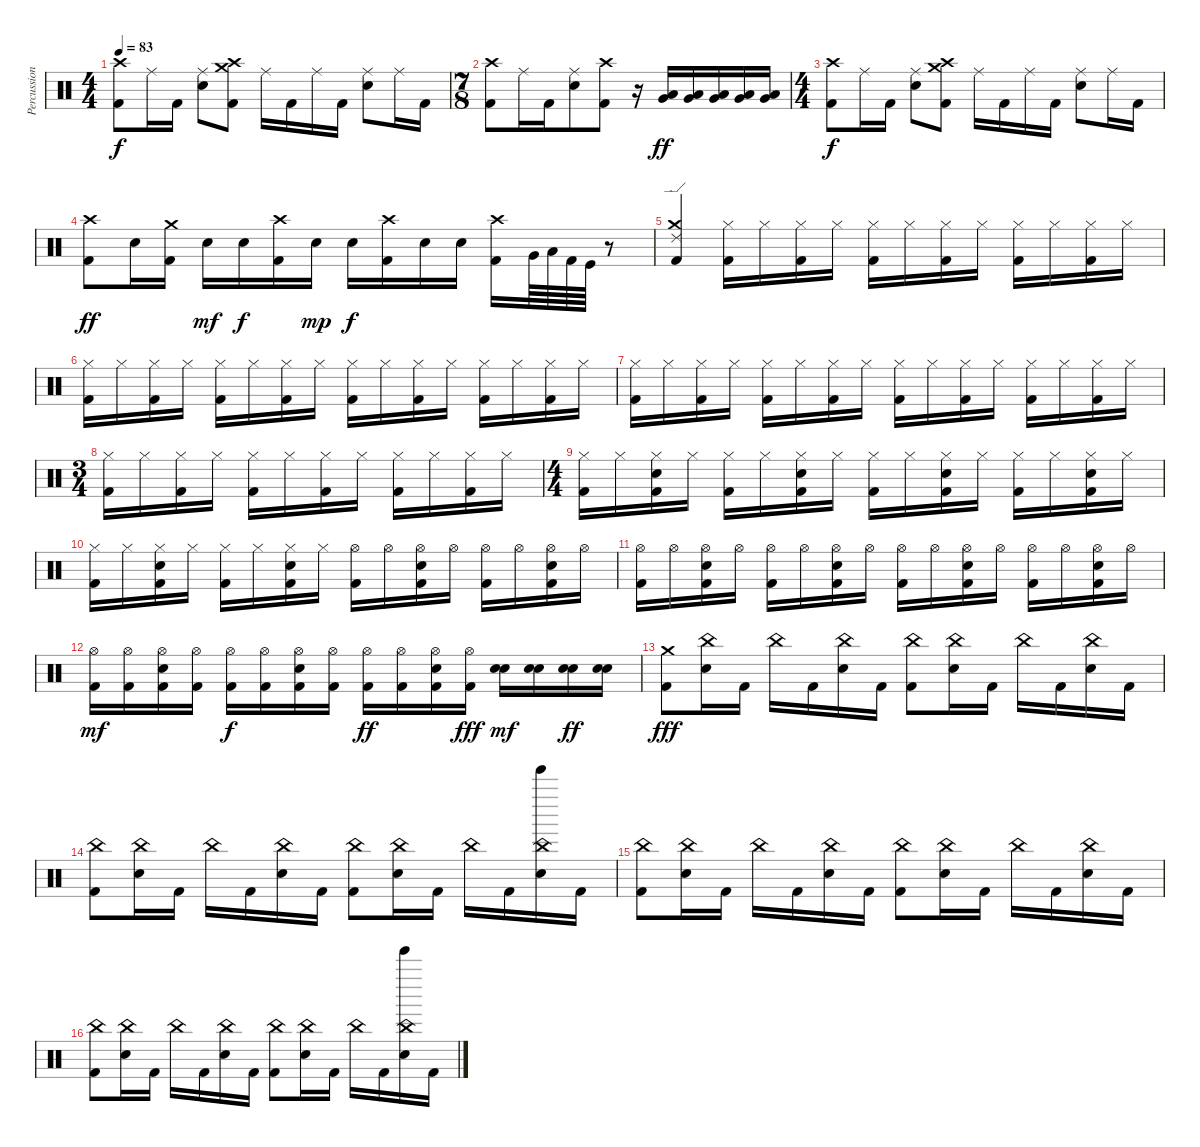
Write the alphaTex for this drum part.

\track ("Percussion" "Percussion") {instrument percussion}
\staff {score}
\articulation defaults
\ts (4 4)
\tempo 83
\clef neutral
\ks c
("Crash high (hit)" "Kick (hit) 2").8{dy f} "Ride (middle)".16 "Kick (hit) 2".16 ("Ride (middle)" "Electric Snare (hit)").8 ("Crash high (hit)" "Crash medium (hit)" "Kick (hit) 2").8 "Ride (middle)".16 "Kick (hit) 2".16 "Ride (middle)".16 "Kick (hit) 2".16 ("Ride (middle)" "Electric Snare (hit)").8 "Ride (middle)".16 "Kick (hit) 2".16 |
\ts (7 8)
("Crash high (hit)" "Kick (hit) 2").8 "Ride (middle)".16 "Kick (hit) 2".16 ("Ride (middle)" "Electric Snare (hit)").8 ("Crash high (hit)" "Kick (hit) 2").8 r.16 ("Very Low Tom (hit)" "Low Floor Tom (hit)").16{dy ff} ("Very Low Tom (hit)" "Low Floor Tom (hit)").16 ("Very Low Tom (hit)" "Low Floor Tom (hit)").16 ("Very Low Tom (hit)" "Low Floor Tom (hit)").16 ("Very Low Tom (hit)" "Low Floor Tom (hit)").16 |
\ts (4 4)
("Crash high (hit)" "Kick (hit) 2").8{dy f} "Ride (middle)".16 "Kick (hit) 2".16 ("Ride (middle)" "Electric Snare (hit)").8 ("Crash high (hit)" "Crash medium (hit)" "Kick (hit) 2").8 "Ride (middle)".16 "Kick (hit) 2".16 "Ride (middle)".16 "Kick (hit) 2".16 ("Ride (middle)" "Electric Snare (hit)").8 "Ride (middle)".16 "Kick (hit) 2".16 |
("Crash high (hit)" "Kick (hit) 2").8{dy ff} "Electric Snare (hit)".16 ("Crash medium (hit)" "Kick (hit) 2").16 "Electric Snare (hit)".16{dy mf} "Electric Snare (hit)".16{dy f} ("Crash high (hit)" "Kick (hit) 2").16 "Electric Snare (hit)".16{dy mp} "Electric Snare (hit)".16{dy f} ("Crash high (hit)" "Kick (hit) 2").16 "Electric Snare (hit)".16 "Electric Snare (hit)".16 ("Crash high (hit)" "Kick (hit) 2").16 "Very Low Tom (hit)".64 "Low Floor Tom (hit)".64 "Kick (hit) 2".64 "Kick (hit)".64 r.8 |
("Crash medium (hit)" "Ride (edge) 2" "Kick (hit) 2").4 ("Hi-Hat (closed)" "Kick (hit) 2").16{volume 7} "Hi-Hat (closed)".16{volume 11} ("Hi-Hat (closed)" "Kick (hit) 2").16 "Hi-Hat (closed)".16 ("Hi-Hat (closed)" "Kick (hit) 2").16 "Hi-Hat (closed)".16 ("Hi-Hat (closed)" "Kick (hit) 2").16 "Hi-Hat (closed)".16 ("Hi-Hat (closed)" "Kick (hit) 2").16 "Hi-Hat (closed)".16 ("Hi-Hat (closed)" "Kick (hit) 2").16 "Hi-Hat (closed)".16 |
("Hi-Hat (closed)" "Kick (hit) 2").16 "Hi-Hat (closed)".16 ("Hi-Hat (closed)" "Kick (hit) 2").16 "Hi-Hat (closed)".16 ("Hi-Hat (closed)" "Kick (hit) 2").16 "Hi-Hat (closed)".16 ("Hi-Hat (closed)" "Kick (hit) 2").16 "Hi-Hat (closed)".16 ("Hi-Hat (closed)" "Kick (hit) 2").16 "Hi-Hat (closed)".16 ("Hi-Hat (closed)" "Kick (hit) 2").16 "Hi-Hat (closed)".16 ("Hi-Hat (closed)" "Kick (hit) 2").16 "Hi-Hat (closed)".16 ("Hi-Hat (closed)" "Kick (hit) 2").16 "Hi-Hat (closed)".16 |
("Hi-Hat (closed)" "Kick (hit) 2").16 "Hi-Hat (closed)".16 ("Hi-Hat (closed)" "Kick (hit) 2").16 "Hi-Hat (closed)".16 ("Hi-Hat (closed)" "Kick (hit) 2").16 "Hi-Hat (closed)".16 ("Hi-Hat (closed)" "Kick (hit) 2").16 "Hi-Hat (closed)".16 ("Hi-Hat (closed)" "Kick (hit) 2").16 "Hi-Hat (closed)".16 ("Hi-Hat (closed)" "Kick (hit) 2").16 "Hi-Hat (closed)".16 ("Hi-Hat (closed)" "Kick (hit) 2").16 "Hi-Hat (closed)".16 ("Hi-Hat (closed)" "Kick (hit) 2").16 "Hi-Hat (closed)".16 |
\ts (3 4)
("Hi-Hat (closed)" "Kick (hit) 2").16{volume 14} "Hi-Hat (closed)".16 ("Hi-Hat (closed)" "Kick (hit) 2").16 "Hi-Hat (closed)".16 ("Hi-Hat (closed)" "Kick (hit) 2").16 "Hi-Hat (closed)".16 ("Hi-Hat (closed)" "Kick (hit) 2").16 "Hi-Hat (closed)".16 ("Hi-Hat (closed)" "Kick (hit) 2").16 "Hi-Hat (closed)".16 ("Hi-Hat (closed)" "Kick (hit) 2").16 "Hi-Hat (closed)".16 |
\ts (4 4)
("Hi-Hat (closed)" "Kick (hit) 2").16 "Hi-Hat (closed)".16 ("Hi-Hat (closed)" "Electric Snare (hit)" "Kick (hit) 2").16 "Hi-Hat (closed)".16 ("Hi-Hat (closed)" "Kick (hit) 2").16 "Hi-Hat (closed)".16 ("Hi-Hat (closed)" "Electric Snare (hit)" "Kick (hit) 2").16 "Hi-Hat (closed)".16 ("Hi-Hat (closed)" "Kick (hit) 2").16 "Hi-Hat (closed)".16 ("Hi-Hat (closed)" "Electric Snare (hit)" "Kick (hit) 2").16 "Hi-Hat (closed)".16 ("Hi-Hat (closed)" "Kick (hit) 2").16 "Hi-Hat (closed)".16 ("Hi-Hat (closed)" "Electric Snare (hit)" "Kick (hit) 2").16 "Hi-Hat (closed)".16 |
("Hi-Hat (closed)" "Kick (hit) 2").16{volume 16} "Hi-Hat (closed)".16 ("Hi-Hat (closed)" "Electric Snare (hit)" "Kick (hit) 2").16 "Hi-Hat (closed)".16 ("Hi-Hat (closed)" "Kick (hit) 2").16 "Hi-Hat (closed)".16 ("Hi-Hat (closed)" "Electric Snare (hit)" "Kick (hit) 2").16 "Hi-Hat (closed)".16 ("Hi-Hat (open)" "Kick (hit) 2").16 "Hi-Hat (open)".16 ("Hi-Hat (open)" "Electric Snare (hit)" "Kick (hit) 2").16 "Hi-Hat (open)".16 ("Hi-Hat (open)" "Kick (hit) 2").16 "Hi-Hat (open)".16 ("Hi-Hat (open)" "Electric Snare (hit)" "Kick (hit) 2").16 "Hi-Hat (open)".16 |
("Hi-Hat (open)" "Kick (hit) 2").16 "Hi-Hat (open)".16 ("Hi-Hat (open)" "Electric Snare (hit)" "Kick (hit) 2").16 "Hi-Hat (open)".16 ("Hi-Hat (open)" "Kick (hit) 2").16 "Hi-Hat (open)".16 ("Hi-Hat (open)" "Electric Snare (hit)" "Kick (hit) 2").16 "Hi-Hat (open)".16 ("Hi-Hat (open)" "Kick (hit) 2").16 "Hi-Hat (open)".16 ("Hi-Hat (open)" "Electric Snare (hit)" "Kick (hit) 2").16 "Hi-Hat (open)".16 ("Hi-Hat (open)" "Kick (hit) 2").16 "Hi-Hat (open)".16 ("Hi-Hat (open)" "Electric Snare (hit)" "Kick (hit) 2").16 "Hi-Hat (open)".16 |
("Hi-Hat (open)" "Kick (hit) 2").16{dy mf} ("Hi-Hat (open)" "Kick (hit) 2").16 ("Hi-Hat (open)" "Electric Snare (hit)" "Kick (hit) 2").16 ("Hi-Hat (open)" "Kick (hit) 2").16 ("Hi-Hat (open)" "Kick (hit) 2").16{dy f} ("Hi-Hat (open)" "Kick (hit) 2").16 ("Hi-Hat (open)" "Electric Snare (hit)" "Kick (hit) 2").16 ("Hi-Hat (open)" "Kick (hit) 2").16 ("Hi-Hat (open)" "Kick (hit) 2").16{dy ff} ("Hi-Hat (open)" "Kick (hit) 2").16 ("Hi-Hat (open)" "Electric Snare (hit)" "Kick (hit) 2").16 ("Hi-Hat (open)" "Kick (hit) 2").16{dy fff} ("Electric Snare (hit)" "Electric Snare (hit)").16{bd 60 dy mf} ("Electric Snare (hit)" "Electric Snare (hit)").16{bd 60} ("Electric Snare (hit)" "Electric Snare (hit)").16{bd 60 dy ff} ("Electric Snare (hit)" "Electric Snare (hit)").16{bd 60} |
("Crash medium (hit)" "Kick (hit) 2").8{dy fff} ("China (hit)" "Snare (hit) 2").16 "Kick (hit) 2".16 "China (hit)".16 "Kick (hit) 2".16 ("China (hit)" "Snare (hit) 2").16 "Kick (hit) 2".16 ("China (hit)" "Kick (hit) 2").8 ("China (hit)" "Snare (hit) 2").16 "Kick (hit) 2".16 "China (hit)".16 "Kick (hit) 2".16 ("China (hit)" "Snare (hit) 2").16 "Kick (hit) 2".16 |
("China (hit)" "Kick (hit) 2").8 ("China (hit)" "Snare (hit) 2").16 "Kick (hit) 2".16 "China (hit)".16 "Kick (hit) 2".16 ("China (hit)" "Snare (hit) 2").16 "Kick (hit) 2".16 ("China (hit)" "Kick (hit) 2").8 ("China (hit)" "Snare (hit) 2").16 "Kick (hit) 2".16 "China (hit)".16 "Kick (hit) 2".16 ("China (hit)" "Snare (hit) 2" "Tinkle Bell (hit)").16 "Kick (hit) 2".16 |
("China (hit)" "Kick (hit) 2").8 ("China (hit)" "Snare (hit) 2").16 "Kick (hit) 2".16 "China (hit)".16 "Kick (hit) 2".16 ("China (hit)" "Snare (hit) 2").16 "Kick (hit) 2".16 ("China (hit)" "Kick (hit) 2").8 ("China (hit)" "Snare (hit) 2").16 "Kick (hit) 2".16 "China (hit)".16 "Kick (hit) 2".16 ("China (hit)" "Snare (hit) 2").16 "Kick (hit) 2".16 |
("China (hit)" "Kick (hit) 2").8 ("China (hit)" "Snare (hit) 2").16 "Kick (hit) 2".16 "China (hit)".16 "Kick (hit) 2".16 ("China (hit)" "Snare (hit) 2").16 "Kick (hit) 2".16 ("China (hit)" "Kick (hit) 2").8 ("China (hit)" "Snare (hit) 2").16 "Kick (hit) 2".16 "China (hit)".16 "Kick (hit) 2".16 ("China (hit)" "Snare (hit) 2" "Tinkle Bell (hit)").16 "Kick (hit) 2".16
